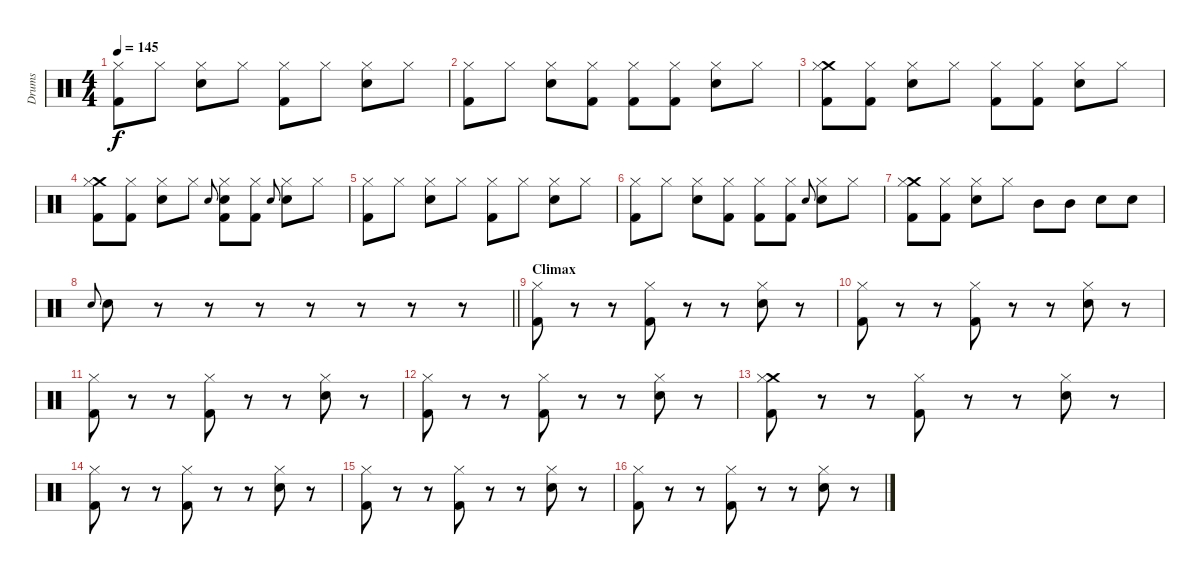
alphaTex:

\track ("Drums" "Drums") {instrument percussion}
\staff {score}
\articulation defaults
\ts (4 4)
\tempo 145
\clef neutral
\ks c
("Hi-Hat (closed)" "Kick (hit) 2").8{dy f} "Hi-Hat (closed)".8 ("Hi-Hat (closed)" "Electric Snare (hit)").8 "Hi-Hat (closed)".8 ("Hi-Hat (closed)" "Kick (hit) 2").8 "Hi-Hat (closed)".8 ("Hi-Hat (closed)" "Electric Snare (hit)").8 "Hi-Hat (closed)".8 |
("Hi-Hat (closed)" "Kick (hit) 2").8 "Hi-Hat (closed)".8 ("Hi-Hat (closed)" "Electric Snare (hit)").8 ("Hi-Hat (closed)" "Kick (hit) 2").8 ("Hi-Hat (closed)" "Kick (hit) 2").8 ("Hi-Hat (closed)" "Kick (hit) 2").8 ("Hi-Hat (closed)" "Electric Snare (hit)").8 "Hi-Hat (closed)".8 |
("Crash medium (hit)" "Hi-Hat (closed)" "Kick (hit) 2").8 ("Hi-Hat (closed)" "Kick (hit) 2").8 ("Hi-Hat (closed)" "Electric Snare (hit)").8 "Hi-Hat (closed)".8 ("Hi-Hat (closed)" "Kick (hit) 2").8 ("Hi-Hat (closed)" "Kick (hit) 2").8 ("Hi-Hat (closed)" "Electric Snare (hit)").8 "Hi-Hat (closed)".8 |
("Crash medium (hit)" "Hi-Hat (closed)" "Kick (hit) 2").8 ("Hi-Hat (closed)" "Kick (hit) 2").8 ("Hi-Hat (closed)" "Electric Snare (hit)").8 "Hi-Hat (closed)".8 "Electric Snare (hit)".8{gr onbeat} ("Hi-Hat (closed)" "Electric Snare (hit)" "Kick (hit) 2").8 ("Hi-Hat (closed)" "Kick (hit) 2").8 "Electric Snare (hit)".8{gr onbeat} ("Hi-Hat (closed)" "Electric Snare (hit)").8 "Hi-Hat (closed)".8 |
("Hi-Hat (closed)" "Kick (hit) 2").8 "Hi-Hat (closed)".8 ("Hi-Hat (closed)" "Electric Snare (hit)").8 "Hi-Hat (closed)".8 ("Hi-Hat (closed)" "Kick (hit) 2").8 "Hi-Hat (closed)".8 ("Hi-Hat (closed)" "Electric Snare (hit)").8 "Hi-Hat (closed)".8 |
("Hi-Hat (closed)" "Kick (hit) 2").8 "Hi-Hat (closed)".8 ("Hi-Hat (closed)" "Electric Snare (hit)").8 ("Hi-Hat (closed)" "Kick (hit) 2").8 ("Hi-Hat (closed)" "Kick (hit) 2").8 ("Hi-Hat (closed)" "Kick (hit) 2").8 "Electric Snare (hit)".8{gr onbeat} ("Hi-Hat (closed)" "Electric Snare (hit)").8 "Hi-Hat (closed)".8 |
("Crash medium (hit)" "Hi-Hat (closed)" "Kick (hit) 2").8 ("Hi-Hat (closed)" "Kick (hit) 2").8 ("Hi-Hat (closed)" "Electric Snare (hit)").8 "Hi-Hat (closed)".8 "Mid Tom (hit)".8 "Mid Tom (hit)".8 "Electric Snare (hit)".8 "Electric Snare (hit)".8 |
\barLineRight lightlight "Electric Snare (hit)".8{gr onbeat} "Electric Snare (hit)".8
r.8 r.8 r.8 r.8 r.8 r.8 r.8 |
\section ("" "Climax")
("Hi-Hat (closed)" "Kick (hit) 2").8 r.8 r.8 ("Hi-Hat (closed)" "Kick (hit) 2").8 r.8 r.8 ("Hi-Hat (closed)" "Electric Snare (hit)").8 r.8 |
("Hi-Hat (closed)" "Kick (hit) 2").8 r.8 r.8 ("Hi-Hat (closed)" "Kick (hit) 2").8 r.8 r.8 ("Hi-Hat (closed)" "Electric Snare (hit)").8 r.8 |
("Hi-Hat (closed)" "Kick (hit) 2").8 r.8 r.8 ("Hi-Hat (closed)" "Kick (hit) 2").8 r.8 r.8 ("Hi-Hat (closed)" "Electric Snare (hit)").8 r.8 |
("Hi-Hat (closed)" "Kick (hit) 2").8 r.8 r.8 ("Hi-Hat (closed)" "Kick (hit) 2").8 r.8 r.8 ("Hi-Hat (closed)" "Electric Snare (hit)").8 r.8 |
("Crash medium (hit)" "Hi-Hat (closed)" "Kick (hit) 2").8 r.8 r.8 ("Hi-Hat (closed)" "Kick (hit) 2").8 r.8 r.8 ("Hi-Hat (closed)" "Electric Snare (hit)").8 r.8 |
("Hi-Hat (closed)" "Kick (hit) 2").8 r.8 r.8 ("Hi-Hat (closed)" "Kick (hit) 2").8 r.8 r.8 ("Hi-Hat (closed)" "Electric Snare (hit)").8 r.8 |
("Hi-Hat (closed)" "Kick (hit) 2").8 r.8 r.8 ("Hi-Hat (closed)" "Kick (hit) 2").8 r.8 r.8 ("Hi-Hat (closed)" "Electric Snare (hit)").8 r.8 |
("Hi-Hat (closed)" "Kick (hit) 2").8 r.8 r.8 ("Hi-Hat (closed)" "Kick (hit) 2").8 r.8 r.8 ("Hi-Hat (closed)" "Electric Snare (hit)").8 r.8
